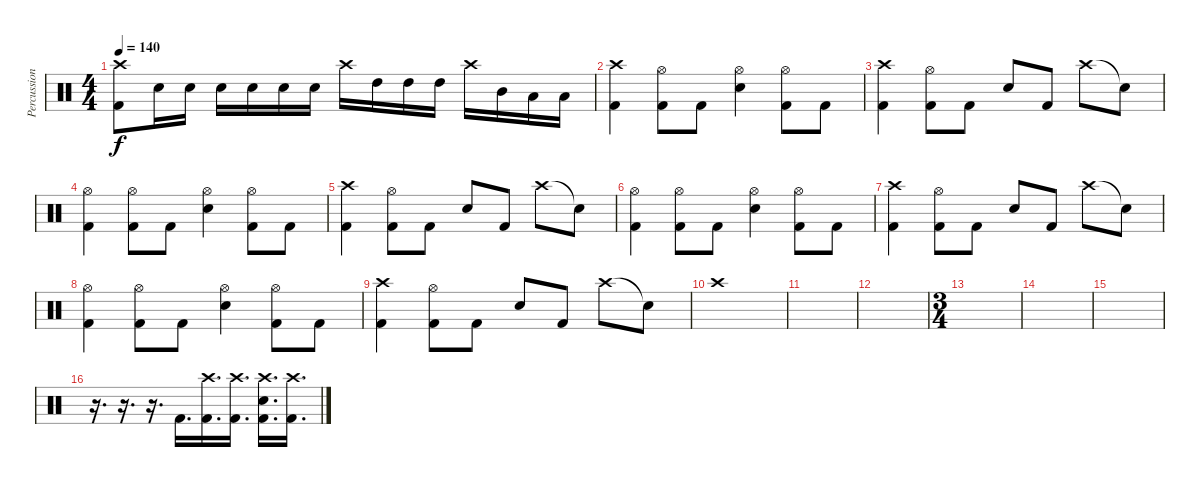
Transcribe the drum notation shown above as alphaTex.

\track ("Percussion" "Percussion") {instrument percussion}
\staff {score}
\articulation defaults
\ts (4 4)
\tempo 140
\clef neutral
\ks c
("Crash high (hit)" "Kick (hit) 2").8{dy f} "Electric Snare (hit)".16 "Electric Snare (hit)".16 "Electric Snare (hit)".16 "Electric Snare (hit)".16 "Electric Snare (hit)".16 "Electric Snare (hit)".16 "Crash high (hit)".16 "High Tom (hit)".16 "High Tom (hit)".16 "High Tom (hit)".16 "Crash high (hit)".16 "Mid Tom (hit)".16 "Low Tom (hit)".16 "Low Tom (hit)".16 |
("Crash high (hit)" "Kick (hit) 2").4 ("Hi-Hat (open)" "Kick (hit) 2").8 "Kick (hit) 2".8 ("Hi-Hat (open)" "Electric Snare (hit)").4 ("Hi-Hat (open)" "Kick (hit) 2").8 "Kick (hit) 2".8 |
("Crash high (hit)" "Kick (hit) 2").4 ("Hi-Hat (open)" "Kick (hit) 2").8 "Kick (hit) 2".8 "Electric Snare (hit)".8 "Kick (hit) 2".8 "Crash high (hit)".8 "Snare (hit)"{t}.8 |
("Hi-Hat (open)" "Kick (hit) 2").4 ("Hi-Hat (open)" "Kick (hit) 2").8 "Kick (hit) 2".8 ("Hi-Hat (open)" "Electric Snare (hit)").4 ("Hi-Hat (open)" "Kick (hit) 2").8 "Kick (hit) 2".8 |
("Crash high (hit)" "Kick (hit) 2").4 ("Hi-Hat (open)" "Kick (hit) 2").8 "Kick (hit) 2".8 "Electric Snare (hit)".8 "Kick (hit) 2".8 "Crash high (hit)".8 "Snare (hit)"{t}.8 |
("Hi-Hat (open)" "Kick (hit) 2").4 ("Hi-Hat (open)" "Kick (hit) 2").8 "Kick (hit) 2".8 ("Hi-Hat (open)" "Electric Snare (hit)").4 ("Hi-Hat (open)" "Kick (hit) 2").8 "Kick (hit) 2".8 |
("Crash high (hit)" "Kick (hit) 2").4 ("Hi-Hat (open)" "Kick (hit) 2").8 "Kick (hit) 2".8 "Electric Snare (hit)".8 "Kick (hit) 2".8 "Crash high (hit)".8 "Snare (hit)"{t}.8 |
("Hi-Hat (open)" "Kick (hit) 2").4 ("Hi-Hat (open)" "Kick (hit) 2").8 "Kick (hit) 2".8 ("Hi-Hat (open)" "Electric Snare (hit)").4 ("Hi-Hat (open)" "Kick (hit) 2").8 "Kick (hit) 2".8 |
("Crash high (hit)" "Kick (hit) 2").4 ("Hi-Hat (open)" "Kick (hit) 2").8 "Kick (hit) 2".8 "Electric Snare (hit)".8 "Kick (hit) 2".8 "Crash high (hit)".8 "Snare (hit)"{t}.8 |
"Crash high (hit)".1 |
|
|
\ts (3 4)
|
|
|
r.16{d} r.16{d} r.16{d} "Kick (hit) 2".16{d} ("Crash high (hit)" "Kick (hit) 2").16{d} ("Crash high (hit)" "Kick (hit) 2").16{d} ("Crash high (hit)" "Electric Snare (hit)" "Kick (hit) 2").16{d} ("Crash high (hit)" "Kick (hit) 2").16{d}
